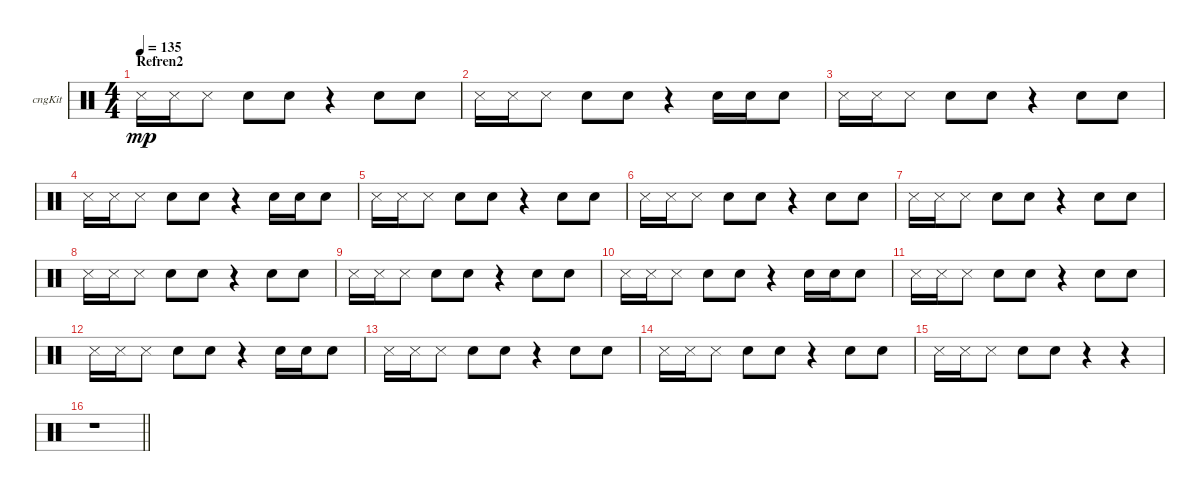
\bracketExtendMode groupsimilarinstruments
\firstSystemTrackNameOrientation horizontal
\otherSystemsTrackNameOrientation horizontal
\track ("Congas" "cngKit") {instrument percussion}
\staff {score}
\articulation defaults
\ts (4 4)
\section ("" "Refren2")
\tempo 135
\clef neutral
\ks c "Snare (side stick) 3".16{dy mp} "Snare (side stick) 3".16 "Snare (side stick) 3".8 "Snare (hit) 2".8 "Snare (hit) 2".8
r.4 "Snare (hit) 2".8 "Snare (hit) 2".8 |
"Snare (side stick) 3".16 "Snare (side stick) 3".16 "Snare (side stick) 3".8 "Snare (hit) 2".8 "Snare (hit) 2".8 r.4 "Snare (hit) 2".16 "Snare (hit) 2".16 "Snare (hit) 2".8 |
"Snare (side stick) 3".16 "Snare (side stick) 3".16 "Snare (side stick) 3".8 "Snare (hit) 2".8 "Snare (hit) 2".8 r.4 "Snare (hit) 2".8 "Snare (hit) 2".8 |
"Snare (side stick) 3".16 "Snare (side stick) 3".16 "Snare (side stick) 3".8 "Snare (hit) 2".8 "Snare (hit) 2".8 r.4 "Snare (hit) 2".16 "Snare (hit) 2".16 "Snare (hit) 2".8 |
"Snare (side stick) 3".16 "Snare (side stick) 3".16 "Snare (side stick) 3".8 "Snare (hit) 2".8 "Snare (hit) 2".8 r.4 "Snare (hit) 2".8 "Snare (hit) 2".8 |
"Snare (side stick) 3".16 "Snare (side stick) 3".16 "Snare (side stick) 3".8 "Snare (hit) 2".8 "Snare (hit) 2".8 r.4 "Snare (hit) 2".8 "Snare (hit) 2".8 |
"Snare (side stick) 3".16 "Snare (side stick) 3".16 "Snare (side stick) 3".8 "Snare (hit) 2".8 "Snare (hit) 2".8 r.4 "Snare (hit) 2".8 "Snare (hit) 2".8 |
"Snare (side stick) 3".16 "Snare (side stick) 3".16 "Snare (side stick) 3".8 "Snare (hit) 2".8 "Snare (hit) 2".8 r.4 "Snare (hit) 2".8 "Snare (hit) 2".8 |
"Snare (side stick) 3".16 "Snare (side stick) 3".16 "Snare (side stick) 3".8 "Snare (hit) 2".8 "Snare (hit) 2".8 r.4 "Snare (hit) 2".8 "Snare (hit) 2".8 |
"Snare (side stick) 3".16 "Snare (side stick) 3".16 "Snare (side stick) 3".8 "Snare (hit) 2".8 "Snare (hit) 2".8 r.4 "Snare (hit) 2".16 "Snare (hit) 2".16 "Snare (hit) 2".8 |
"Snare (side stick) 3".16 "Snare (side stick) 3".16 "Snare (side stick) 3".8 "Snare (hit) 2".8 "Snare (hit) 2".8 r.4 "Snare (hit) 2".8 "Snare (hit) 2".8 |
"Snare (side stick) 3".16 "Snare (side stick) 3".16 "Snare (side stick) 3".8 "Snare (hit) 2".8 "Snare (hit) 2".8 r.4 "Snare (hit) 2".16 "Snare (hit) 2".16 "Snare (hit) 2".8 |
"Snare (side stick) 3".16 "Snare (side stick) 3".16 "Snare (side stick) 3".8 "Snare (hit) 2".8 "Snare (hit) 2".8 r.4 "Snare (hit) 2".8 "Snare (hit) 2".8 |
"Snare (side stick) 3".16 "Snare (side stick) 3".16 "Snare (side stick) 3".8 "Snare (hit) 2".8 "Snare (hit) 2".8 r.4 "Snare (hit) 2".8 "Snare (hit) 2".8 |
"Snare (side stick) 3".16 "Snare (side stick) 3".16 "Snare (side stick) 3".8 "Snare (hit) 2".8 "Snare (hit) 2".8 r.4 r.4 |
\barLineRight lightlight
r.1
